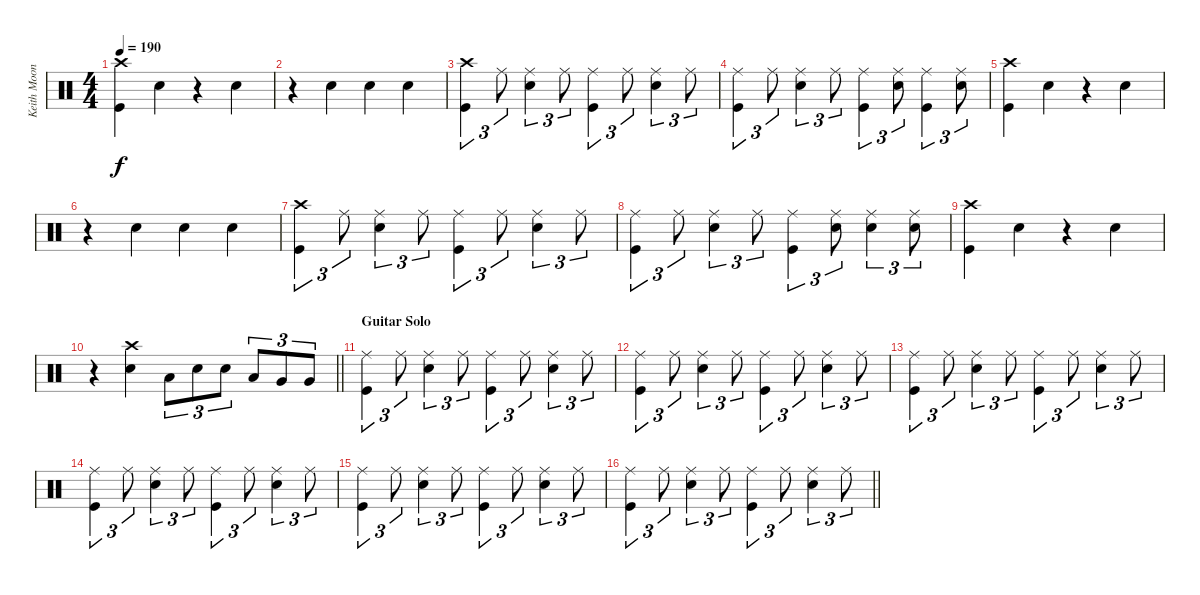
\track ("Keith Moon" "Keith Moon") {instrument percussion}
\staff {score}
\articulation defaults
\ts (4 4)
\tempo 190
\clef neutral
\ks c
("Crash high (hit)" "Kick (hit)").4{dy f} "Hand Clap (hit)".4 r.4 "Hand Clap (hit)".4 |
r.4 "Hand Clap (hit)".4 "Hand Clap (hit)".4 "Snare (hit) 2".4 |
("Crash high (hit)" "Kick (hit)").4{tu (3 2)} "Ride (middle)".8{tu (3 2)} ("Ride (middle)" "Snare (hit) 2").4{tu (3 2)} "Ride (middle)".8{tu (3 2)} ("Ride (middle)" "Kick (hit)").4{tu (3 2)} "Ride (middle)".8{tu (3 2)} ("Ride (middle)" "Snare (hit) 2").4{tu (3 2)} "Ride (middle)".8{tu (3 2)} |
("Ride (middle)" "Kick (hit)").4{tu (3 2)} "Ride (middle)".8{tu (3 2)} ("Ride (middle)" "Snare (hit) 2").4{tu (3 2)} "Ride (middle)".8{tu (3 2)} ("Ride (middle)" "Kick (hit)").4{tu (3 2)} ("Ride (middle)" "Snare (hit) 2").8{tu (3 2)} ("Ride (middle)" "Kick (hit)").4{tu (3 2)} ("Ride (middle)" "Snare (hit) 2").8{tu (3 2)} |
("Crash high (hit)" "Kick (hit)").4 "Hand Clap (hit)".4 r.4 "Hand Clap (hit)".4 |
r.4 "Hand Clap (hit)".4 "Hand Clap (hit)".4 "Snare (hit) 2".4 |
("Crash high (hit)" "Kick (hit)").4{tu (3 2)} "Ride (middle)".8{tu (3 2)} ("Ride (middle)" "Snare (hit) 2").4{tu (3 2)} "Ride (middle)".8{tu (3 2)} ("Ride (middle)" "Kick (hit)").4{tu (3 2)} "Ride (middle)".8{tu (3 2)} ("Ride (middle)" "Snare (hit) 2").4{tu (3 2)} "Ride (middle)".8{tu (3 2)} |
("Ride (middle)" "Kick (hit)").4{tu (3 2)} "Ride (middle)".8{tu (3 2)} ("Ride (middle)" "Snare (hit) 2").4{tu (3 2)} "Ride (middle)".8{tu (3 2)} ("Ride (middle)" "Kick (hit)").4{tu (3 2)} ("Ride (middle)" "Snare (hit) 2").8{tu (3 2)} ("Ride (middle)" "Snare (hit) 2").4{tu (3 2)} ("Ride (middle)" "Snare (hit) 2").8{tu (3 2)} |
("Crash high (hit)" "Kick (hit)").4 "Hand Clap (hit)".4 r.4 "Hand Clap (hit)".4 |
\barLineRight lightlight
r.4 ("Crash high (hit)" "Snare (hit) 2").4 "Low Tom (hit)".8{tu (3 2)} "Snare (hit) 2".8{tu (3 2)} "Snare (hit) 2".8{tu (3 2)} "Low Tom (hit)".8{tu (3 2)} "Very Low Tom (hit)".8{tu (3 2)} "Very Low Tom (hit)".8{tu (3 2)} |
\section ("" "Guitar Solo")
("Ride (middle)" "Kick (hit)").4{tu (3 2)} "Ride (middle)".8{tu (3 2)} ("Ride (middle)" "Snare (hit) 2").4{tu (3 2)} "Ride (middle)".8{tu (3 2)} ("Ride (middle)" "Kick (hit)").4{tu (3 2)} "Ride (middle)".8{tu (3 2)} ("Ride (middle)" "Snare (hit) 2").4{tu (3 2)} "Ride (middle)".8{tu (3 2)} |
("Ride (middle)" "Kick (hit)").4{tu (3 2)} "Ride (middle)".8{tu (3 2)} ("Ride (middle)" "Snare (hit) 2").4{tu (3 2)} "Ride (middle)".8{tu (3 2)} ("Ride (middle)" "Kick (hit)").4{tu (3 2)} "Ride (middle)".8{tu (3 2)} ("Ride (middle)" "Snare (hit) 2").4{tu (3 2)} "Ride (middle)".8{tu (3 2)} |
("Ride (middle)" "Kick (hit)").4{tu (3 2)} "Ride (middle)".8{tu (3 2)} ("Ride (middle)" "Snare (hit) 2").4{tu (3 2)} "Ride (middle)".8{tu (3 2)} ("Ride (middle)" "Kick (hit)").4{tu (3 2)} "Ride (middle)".8{tu (3 2)} ("Ride (middle)" "Snare (hit) 2").4{tu (3 2)} "Ride (middle)".8{tu (3 2)} |
("Ride (middle)" "Kick (hit)").4{tu (3 2)} "Ride (middle)".8{tu (3 2)} ("Ride (middle)" "Snare (hit) 2").4{tu (3 2)} "Ride (middle)".8{tu (3 2)} ("Ride (middle)" "Kick (hit)").4{tu (3 2)} "Ride (middle)".8{tu (3 2)} ("Ride (middle)" "Snare (hit) 2").4{tu (3 2)} "Ride (middle)".8{tu (3 2)} |
("Ride (middle)" "Kick (hit)").4{tu (3 2)} "Ride (middle)".8{tu (3 2)} ("Ride (middle)" "Snare (hit) 2").4{tu (3 2)} "Ride (middle)".8{tu (3 2)} ("Ride (middle)" "Kick (hit)").4{tu (3 2)} "Ride (middle)".8{tu (3 2)} ("Ride (middle)" "Snare (hit) 2").4{tu (3 2)} "Ride (middle)".8{tu (3 2)} |
\barLineRight lightlight
("Ride (middle)" "Kick (hit)").4{tu (3 2)} "Ride (middle)".8{tu (3 2)} ("Ride (middle)" "Snare (hit) 2").4{tu (3 2)} "Ride (middle)".8{tu (3 2)} ("Ride (middle)" "Kick (hit)").4{tu (3 2)} "Ride (middle)".8{tu (3 2)} ("Ride (middle)" "Snare (hit) 2").4{tu (3 2)} "Ride (middle)".8{tu (3 2)}
